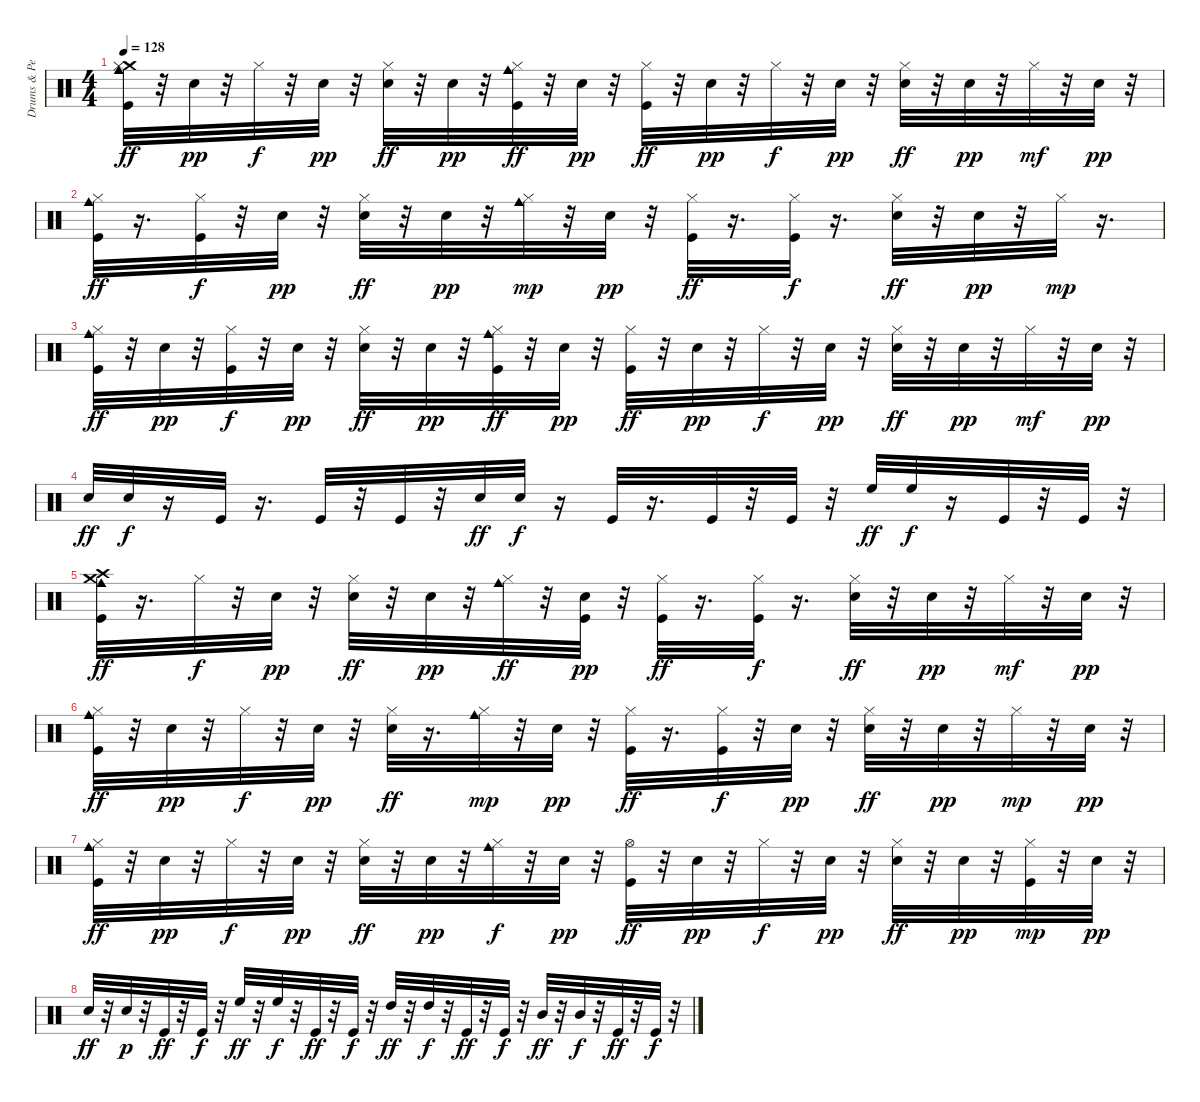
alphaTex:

\track ("Drums & Percussion" "Drums & Pe") {instrument percussion}
\staff {score}
\articulation defaults
\ts (4 4)
\tempo 128
\clef neutral
\ks c
("Crash medium (hit)" "Kick (hit)" "Hi-Hat (closed)" "Cowbell medium (hit)").32{dy ff} r.32 "Electric Snare (hit)".32{dy pp} r.32 "Hi-Hat (closed)".32{dy f} r.32 "Electric Snare (hit)".32{dy pp} r.32 ("Hi-Hat (closed)" "Electric Snare (hit)").32{dy ff} r.32 "Electric Snare (hit)".32{dy pp} r.32 ("Kick (hit)" "Hi-Hat (closed)" "Cowbell medium (hit)").32{dy ff} r.32 "Electric Snare (hit)".32{dy pp} r.32 ("Kick (hit)" "Hi-Hat (closed)").32{dy ff} r.32 "Electric Snare (hit)".32{dy pp} r.32 "Hi-Hat (closed)".32{dy f} r.32 "Electric Snare (hit)".32{dy pp} r.32 ("Hi-Hat (closed)" "Electric Snare (hit)").32{dy ff} r.32 "Electric Snare (hit)".32{dy pp} r.32 "Hi-Hat (closed)".32{dy mf} r.32 "Electric Snare (hit)".32{dy pp} r.32 |
("Kick (hit)" "Hi-Hat (closed)" "Cowbell medium (hit)").32{dy ff} r.16{d} ("Kick (hit)" "Hi-Hat (closed)").32{dy f} r.32 "Electric Snare (hit)".32{dy pp} r.32 ("Hi-Hat (closed)" "Electric Snare (hit)").32{dy ff} r.32 "Electric Snare (hit)".32{dy pp} r.32 ("Hi-Hat (closed)" "Cowbell medium (hit)").32{dy mp} r.32 "Electric Snare (hit)".32{dy pp} r.32 ("Kick (hit)" "Hi-Hat (closed)").32{dy ff} r.16{d} ("Kick (hit)" "Hi-Hat (closed)").32{dy f} r.16{d} ("Hi-Hat (closed)" "Electric Snare (hit)").32{dy ff} r.32 "Electric Snare (hit)".32{dy pp} r.32 "Hi-Hat (closed)".32{dy mp} r.16{d} |
("Kick (hit)" "Hi-Hat (closed)" "Cowbell medium (hit)").32{dy ff} r.32 "Electric Snare (hit)".32{dy pp} r.32 ("Kick (hit)" "Hi-Hat (closed)").32{dy f} r.32 "Electric Snare (hit)".32{dy pp} r.32 ("Hi-Hat (closed)" "Electric Snare (hit)").32{dy ff} r.32 "Electric Snare (hit)".32{dy pp} r.32 ("Kick (hit)" "Hi-Hat (closed)" "Cowbell medium (hit)").32{dy ff} r.32 "Electric Snare (hit)".32{dy pp} r.32 ("Kick (hit)" "Hi-Hat (closed)").32{dy ff} r.32 "Electric Snare (hit)".32{dy pp} r.32 "Hi-Hat (closed)".32{dy f} r.32 "Electric Snare (hit)".32{dy pp} r.32 ("Hi-Hat (closed)" "Electric Snare (hit)").32{dy ff} r.32 "Electric Snare (hit)".32{dy pp} r.32 "Hi-Hat (closed)".32{dy mf} r.32 "Electric Snare (hit)".32{dy pp} r.32 |
"Electric Snare (hit)".32{dy ff} "Electric Snare (hit)".32{dy f} r.16 "Kick (hit)".32 r.16{d} "Kick (hit)".32 r.32 "Kick (hit)".32 r.32 "Electric Snare (hit)".32{dy ff} "Electric Snare (hit)".32{dy f} r.16 "Kick (hit)".32 r.16{d} "Kick (hit)".32 r.32 "Kick (hit)".32 r.32 "High Floor Tom (hit)".32{dy ff} "High Floor Tom (hit)".32{dy f} r.16 "Kick (hit)".32 r.32 "Kick (hit)".32 r.32 |
("Crash medium (hit)" "Kick (hit)" "Cowbell medium (hit)" "Crash high (hit)").32{dy ff} r.16{d} "Hi-Hat (closed)".32{dy f} r.32 "Electric Snare (hit)".32{dy pp} r.32 ("Hi-Hat (closed)" "Electric Snare (hit)").32{dy ff} r.32 "Electric Snare (hit)".32{dy pp} r.32 ("Hi-Hat (closed)" "Cowbell medium (hit)").32{dy ff} r.32 ("Kick (hit)" "Electric Snare (hit)").32{dy pp} r.32 ("Kick (hit)" "Hi-Hat (closed)").32{dy ff} r.16{d} ("Kick (hit)" "Hi-Hat (closed)").32{dy f} r.16{d} ("Hi-Hat (closed)" "Electric Snare (hit)").32{dy ff} r.32 "Electric Snare (hit)".32{dy pp} r.32 "Hi-Hat (closed)".32{dy mf} r.32 "Electric Snare (hit)".32{dy pp} r.32 |
("Kick (hit)" "Hi-Hat (closed)" "Cowbell medium (hit)").32{dy ff} r.32 "Electric Snare (hit)".32{dy pp} r.32 "Hi-Hat (closed)".32{dy f} r.32 "Electric Snare (hit)".32{dy pp} r.32 ("Hi-Hat (closed)" "Electric Snare (hit)").32{dy ff} r.16{d} ("Hi-Hat (closed)" "Cowbell medium (hit)").32{dy mp} r.32 "Electric Snare (hit)".32{dy pp} r.32 ("Kick (hit)" "Hi-Hat (closed)").32{dy ff} r.16{d} ("Kick (hit)" "Hi-Hat (closed)").32{dy f} r.32 "Electric Snare (hit)".32{dy pp} r.32 ("Hi-Hat (closed)" "Electric Snare (hit)").32{dy ff} r.32 "Electric Snare (hit)".32{dy pp} r.32 "Hi-Hat (closed)".32{dy mp} r.32 "Electric Snare (hit)".32{dy pp} r.32 |
("Kick (hit)" "Hi-Hat (closed)" "Cowbell medium (hit)").32{dy ff} r.32 "Electric Snare (hit)".32{dy pp} r.32 "Hi-Hat (closed)".32{dy f} r.32 "Electric Snare (hit)".32{dy pp} r.32 ("Hi-Hat (closed)" "Electric Snare (hit)").32{dy ff} r.32 "Electric Snare (hit)".32{dy pp} r.32 ("Hi-Hat (closed)" "Cowbell medium (hit)").32{dy f} r.32 "Electric Snare (hit)".32{dy pp} r.32 ("Kick (hit)" "Hi-Hat (open)").32{dy ff} r.32 "Electric Snare (hit)".32{dy pp} r.32 "Hi-Hat (closed)".32{dy f} r.32 "Electric Snare (hit)".32{dy pp} r.32 ("Hi-Hat (closed)" "Electric Snare (hit)").32{dy ff} r.32 "Electric Snare (hit)".32{dy pp} r.32 ("Kick (hit)" "Hi-Hat (closed)").32{dy mp} r.32 "Electric Snare (hit)".32{dy pp} r.32 |
"Electric Snare (hit)".32{dy ff} r.32 "Electric Snare (hit)".32{dy p} r.32 "Kick (hit)".32{dy ff} r.32 "Kick (hit)".32{dy f} r.32 "High Floor Tom (hit)".32{dy ff} r.32 "High Floor Tom (hit)".32{dy f} r.32 "Kick (hit)".32{dy ff} r.32 "Kick (hit)".32{dy f} r.32 "High Tom (hit)".32{dy ff} r.32 "High Tom (hit)".32{dy f} r.32 "Kick (hit)".32{dy ff} r.32 "Kick (hit)".32{dy f} r.32 "Mid Tom (hit)".32{dy ff} r.32 "Mid Tom (hit)".32{dy f} r.32 "Kick (hit)".32{dy ff} r.32 "Kick (hit)".32{dy f} r.32
